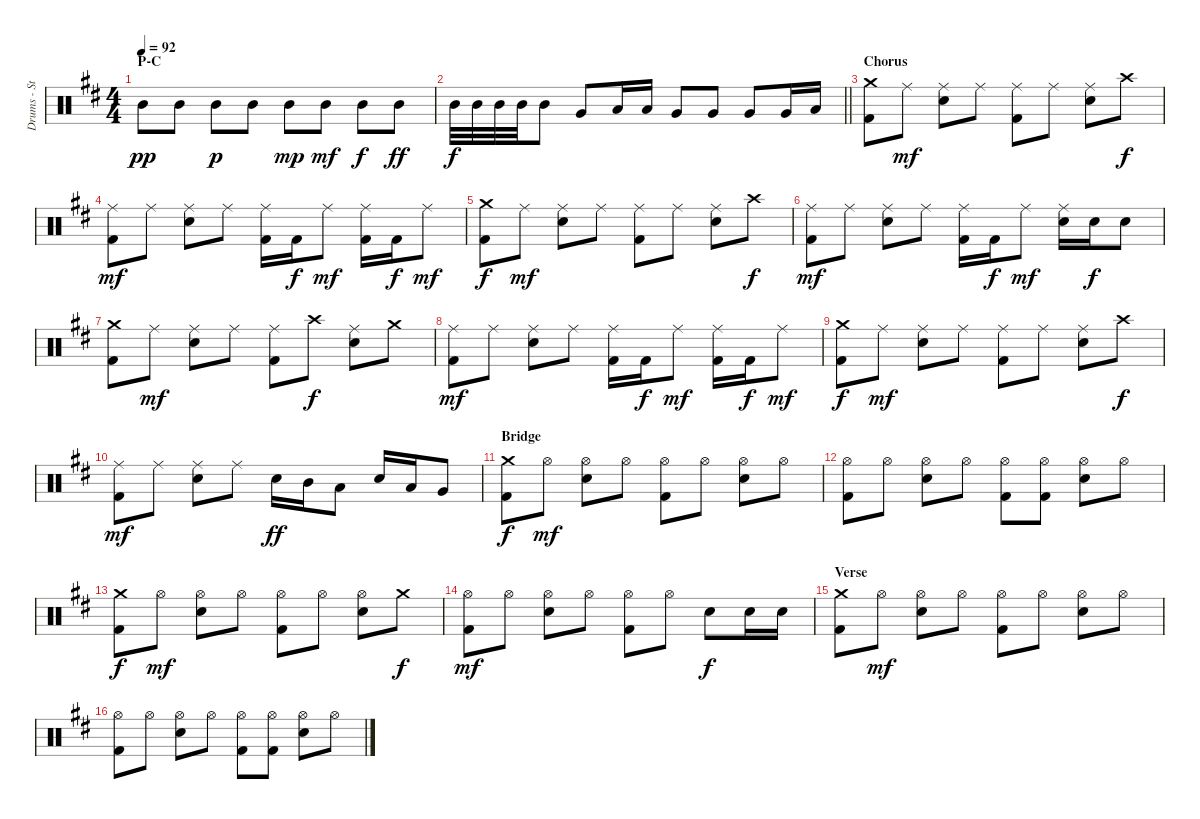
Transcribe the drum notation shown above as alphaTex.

\track ("Drums - Steve Wacholz" "Drums - St") {instrument percussion}
\staff {score}
\articulation defaults
\ts (4 4)
\section ("" "P-C")
\tempo 92
\clef neutral
\ks d "Mid Tom (hit)".8{dy pp} "Mid Tom (hit)".8 "Mid Tom (hit)".8{dy p} "Mid Tom (hit)".8 "Mid Tom (hit)".8{dy mp} "Mid Tom (hit)".8{dy mf} "Mid Tom (hit)".8{dy f} "Mid Tom (hit)".8{dy ff}
|
\barLineRight lightlight "Mid Tom (hit)".32{dy f} "Mid Tom (hit)".32 "Mid Tom (hit)".32 "Mid Tom (hit)".32 "Mid Tom (hit)".8 "Very Low Tom (hit)".8 "Low Tom (hit)".16 "Low Tom (hit)".16 "Very Low Tom (hit)".8 "Very Low Tom (hit)".8 "Very Low Tom (hit)".8 "Very Low Tom (hit)".16 "Low Floor Tom (hit)".16
|
\section ("" "Chorus")
("Crash medium (hit)" "Kick (hit) 2").8 "Ride (middle)".8{dy mf} ("Ride (middle)" "Electric Snare (hit)").8 "Ride (middle)".8 ("Ride (middle)" "Kick (hit) 2").8 "Ride (middle)".8 ("Ride (middle)" "Electric Snare (hit)").8 "Crash high (hit)".8{dy f} |
("Ride (middle)" "Kick (hit) 2").8{dy mf} "Ride (middle)".8 ("Ride (middle)" "Electric Snare (hit)").8 "Ride (middle)".8 ("Ride (middle)" "Kick (hit) 2").16 "Kick (hit) 2".16{dy f} "Ride (middle)".8{dy mf} ("Ride (middle)" "Kick (hit) 2").16 "Kick (hit) 2".16{dy f} "Ride (middle)".8{dy mf} |
("Crash medium (hit)" "Kick (hit) 2").8{dy f} "Ride (middle)".8{dy mf} ("Ride (middle)" "Electric Snare (hit)").8 "Ride (middle)".8 ("Ride (middle)" "Kick (hit) 2").8 "Ride (middle)".8 ("Ride (middle)" "Electric Snare (hit)").8 "Crash high (hit)".8{dy f} |
("Ride (middle)" "Kick (hit) 2").8{dy mf} "Ride (middle)".8 ("Ride (middle)" "Electric Snare (hit)").8 "Ride (middle)".8 ("Ride (middle)" "Kick (hit) 2").16 "Kick (hit) 2".16{dy f} "Ride (middle)".8{dy mf} ("Ride (middle)" "Electric Snare (hit)").16 "Electric Snare (hit)".16{dy f} "Electric Snare (hit)".8 |
("Crash medium (hit)" "Kick (hit) 2").8 "Ride (middle)".8{dy mf} ("Ride (middle)" "Electric Snare (hit)").8 "Ride (middle)".8 ("Ride (middle)" "Kick (hit) 2").8 "Crash high (hit)".8{dy f} ("Ride (middle)" "Electric Snare (hit)").8 "Crash medium (hit)".8 |
("Ride (middle)" "Kick (hit) 2").8{dy mf} "Ride (middle)".8 ("Ride (middle)" "Electric Snare (hit)").8 "Ride (middle)".8 ("Ride (middle)" "Kick (hit) 2").16 "Kick (hit) 2".16{dy f} "Ride (middle)".8{dy mf} ("Ride (middle)" "Kick (hit) 2").16 "Kick (hit) 2".16{dy f} "Ride (middle)".8{dy mf} |
("Crash medium (hit)" "Kick (hit) 2").8{dy f} "Ride (middle)".8{dy mf} ("Ride (middle)" "Electric Snare (hit)").8 "Ride (middle)".8 ("Ride (middle)" "Kick (hit) 2").8 "Ride (middle)".8 ("Ride (middle)" "Electric Snare (hit)").8 "Crash high (hit)".8{dy f} |
("Ride (middle)" "Kick (hit) 2").8{dy mf} "Ride (middle)".8 ("Ride (middle)" "Electric Snare (hit)").8 "Ride (middle)".8 "Electric Snare (hit)".16{dy ff} "Mid Tom (hit)".16 "Low Tom (hit)".8 "Electric Snare (hit)".16 "Low Tom (hit)".16 "Very Low Tom (hit)".8 |
\section ("" "Bridge")
("Crash medium (hit)" "Kick (hit) 2").8{dy f} "Hi-Hat (open)".8{dy mf} ("Hi-Hat (open)" "Electric Snare (hit)").8 "Hi-Hat (open)".8 ("Hi-Hat (open)" "Kick (hit) 2").8 "Hi-Hat (open)".8 ("Hi-Hat (open)" "Electric Snare (hit)").8 "Hi-Hat (open)".8 |
("Hi-Hat (open)" "Kick (hit) 2").8 "Hi-Hat (open)".8 ("Hi-Hat (open)" "Electric Snare (hit)").8 "Hi-Hat (open)".8 ("Hi-Hat (open)" "Kick (hit) 2").8 ("Hi-Hat (open)" "Kick (hit) 2").8 ("Hi-Hat (open)" "Electric Snare (hit)").8 "Hi-Hat (open)".8 |
("Crash medium (hit)" "Kick (hit) 2").8{dy f} "Hi-Hat (open)".8{dy mf} ("Hi-Hat (open)" "Electric Snare (hit)").8 "Hi-Hat (open)".8 ("Hi-Hat (open)" "Kick (hit) 2").8 "Hi-Hat (open)".8 ("Hi-Hat (open)" "Electric Snare (hit)").8 "Crash medium (hit)".8{dy f} |
("Hi-Hat (open)" "Kick (hit) 2").8{dy mf} "Hi-Hat (open)".8 ("Hi-Hat (open)" "Electric Snare (hit)").8 "Hi-Hat (open)".8 ("Hi-Hat (open)" "Kick (hit) 2").8 "Hi-Hat (open)".8 "Electric Snare (hit)".8{dy f} "Electric Snare (hit)".16 "Electric Snare (hit)".16 |
\section ("" "Verse")
("Crash medium (hit)" "Kick (hit) 2").8 "Hi-Hat (open)".8{dy mf} ("Hi-Hat (open)" "Electric Snare (hit)").8 "Hi-Hat (open)".8 ("Hi-Hat (open)" "Kick (hit) 2").8 "Hi-Hat (open)".8 ("Hi-Hat (open)" "Electric Snare (hit)").8 "Hi-Hat (open)".8 |
("Hi-Hat (open)" "Kick (hit) 2").8 "Hi-Hat (open)".8 ("Hi-Hat (open)" "Electric Snare (hit)").8 "Hi-Hat (open)".8 ("Hi-Hat (open)" "Kick (hit) 2").8 ("Hi-Hat (open)" "Kick (hit) 2").8 ("Hi-Hat (open)" "Electric Snare (hit)").8 "Hi-Hat (open)".8
